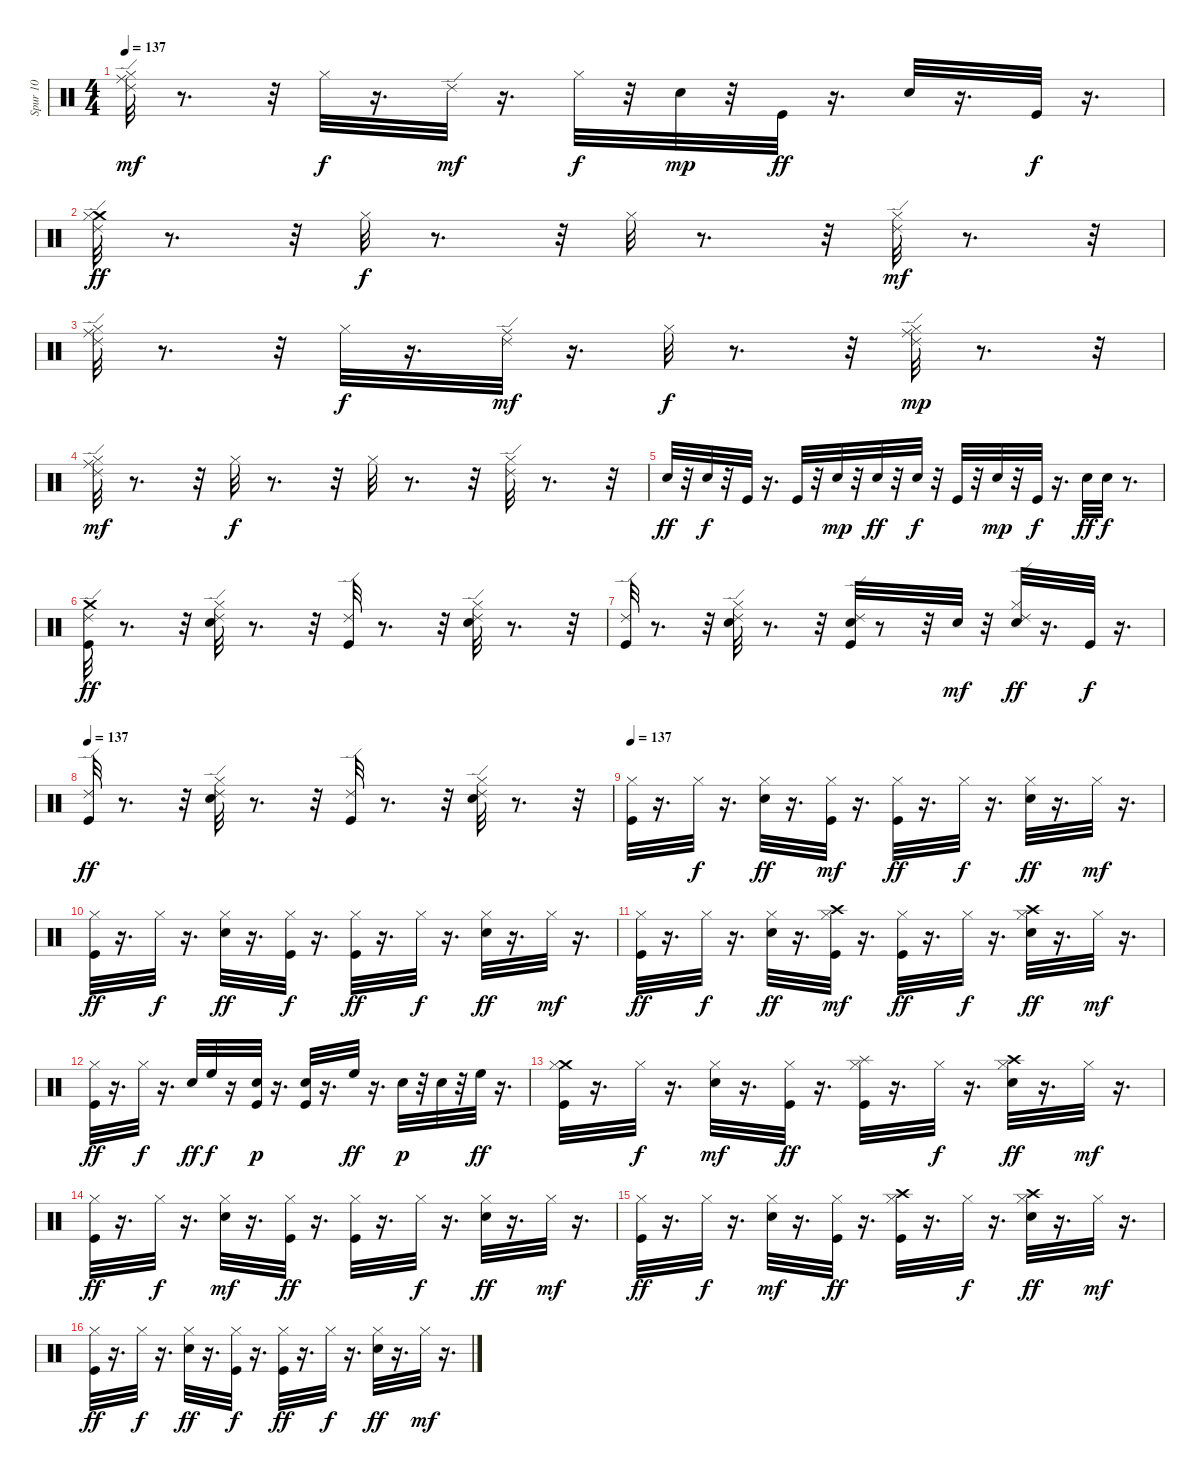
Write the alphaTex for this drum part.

\track ("Spur 10" "Spur 10") {instrument percussion}
\staff {score}
\articulation defaults
\ts (4 4)
\tempo 137
\clef neutral
\ks c
("Ride (edge) 2" "Hi-Hat (closed)" "Ride (middle)").32{dy mf} r.8{d} r.32 "Hi-Hat (closed)".32{dy f} r.16{d} "Ride (edge) 2".32{dy mf} r.16{d} "Hi-Hat (closed)".32{dy f} r.32 "Electric Snare (hit)".32{dy mp} r.32 "Kick (hit)".32{dy ff} r.16{d} "Electric Snare (hit)".32 r.16{d} "Kick (hit)".32{dy f} r.16{d} |
("Crash medium (hit)" "Ride (edge) 2" "Hi-Hat (closed)").32{dy ff} r.8{d} r.32 "Hi-Hat (closed)".32{dy f} r.8{d} r.32 "Hi-Hat (closed)".32 r.8{d} r.32 ("Ride (edge) 2" "Hi-Hat (closed)").32{dy mf} r.8{d} r.32 |
("Ride (edge) 2" "Hi-Hat (closed)" "Ride (middle)").32 r.8{d} r.32 "Hi-Hat (closed)".32{dy f} r.16{d} ("Ride (edge) 2" "Ride (middle)").32{dy mf} r.16{d} "Hi-Hat (closed)".32{dy f} r.8{d} r.32 ("Ride (edge) 2" "Hi-Hat (closed)" "Ride (middle)").32{dy mp} r.8{d} r.32 |
("Ride (edge) 2" "Hi-Hat (closed)" "Ride (middle)").32{dy mf} r.8{d} r.32 "Hi-Hat (closed)".32{dy f} r.8{d} r.32 "Hi-Hat (closed)".32 r.8{d} r.32 ("Ride (edge) 2" "Hi-Hat (closed)").32 r.8{d} r.32 |
"Electric Snare (hit)".32{dy ff} r.32 "Electric Snare (hit)".32{dy f} r.32 "Kick (hit)".32 r.16{d} "Kick (hit)".32 r.32 "Electric Snare (hit)".32{dy mp} r.32 "Electric Snare (hit)".32{dy ff} r.32 "Electric Snare (hit)".32{dy f} r.32 "Kick (hit)".32 r.32 "Electric Snare (hit)".32{dy mp} r.32 "Kick (hit)".32{dy f} r.16{d} "Electric Snare (hit)".32{dy ff} "Electric Snare (hit)".32{dy f} r.8{d} |
("Crash medium (hit)" "Ride (edge) 2" "Kick (hit)").32{dy ff} r.8{d} r.32 ("Ride (edge) 2" "Electric Snare (hit)" "Hi-Hat (closed)").32 r.8{d} r.32 ("Ride (edge) 2" "Kick (hit)").32 r.8{d} r.32 ("Ride (edge) 2" "Electric Snare (hit)" "Hi-Hat (closed)").32 r.8{d} r.32 |
("Ride (edge) 2" "Kick (hit)").32 r.8{d} r.32 ("Ride (edge) 2" "Electric Snare (hit)" "Hi-Hat (closed)").32 r.8{d} r.32 ("Ride (edge) 2" "Kick (hit)" "Electric Snare (hit)").32 r.8 r.32 "Electric Snare (hit)".32{dy mf} r.32 ("Ride (edge) 2" "Electric Snare (hit)" "Hi-Hat (closed)").32{dy ff} r.16{d} "Kick (hit)".32{dy f} r.16{d} |
\tempo 137
("Ride (edge) 2" "Kick (hit)").32{dy ff} r.8{d} r.32 ("Ride (edge) 2" "Electric Snare (hit)" "Hi-Hat (closed)").32 r.8{d} r.32 ("Ride (edge) 2" "Kick (hit)").32 r.8{d} r.32 ("Ride (edge) 2" "Electric Snare (hit)" "Hi-Hat (closed)").32 r.8{d} r.32 |
\tempo 137
("Kick (hit)" "Hi-Hat (closed)").32 r.16{d} "Hi-Hat (closed)".32{dy f} r.16{d} ("Electric Snare (hit)" "Hi-Hat (closed)").32{dy ff} r.16{d} ("Kick (hit)" "Hi-Hat (closed)").32{dy mf} r.16{d} ("Kick (hit)" "Hi-Hat (closed)").32{dy ff} r.16{d} "Hi-Hat (closed)".32{dy f} r.16{d} ("Electric Snare (hit)" "Hi-Hat (closed)").32{dy ff} r.16{d} "Hi-Hat (closed)".32{dy mf} r.16{d} |
("Kick (hit)" "Hi-Hat (closed)").32{dy ff} r.16{d} "Hi-Hat (closed)".32{dy f} r.16{d} ("Electric Snare (hit)" "Hi-Hat (closed)").32{dy ff} r.16{d} ("Kick (hit)" "Hi-Hat (closed)").32{dy f} r.16{d} ("Kick (hit)" "Hi-Hat (closed)").32{dy ff} r.16{d} "Hi-Hat (closed)".32{dy f} r.16{d} ("Electric Snare (hit)" "Hi-Hat (closed)").32{dy ff} r.16{d} "Hi-Hat (closed)".32{dy mf} r.16{d} |
("Kick (hit)" "Hi-Hat (closed)").32{dy ff} r.16{d} "Hi-Hat (closed)".32{dy f} r.16{d} ("Electric Snare (hit)" "Hi-Hat (closed)").32{dy ff} r.16{d} ("Crash high (hit)" "Kick (hit)" "Hi-Hat (closed)").32{dy mf} r.16{d} ("Kick (hit)" "Hi-Hat (closed)").32{dy ff} r.16{d} "Hi-Hat (closed)".32{dy f} r.16{d} ("Crash high (hit)" "Electric Snare (hit)" "Hi-Hat (closed)").32{dy ff} r.16{d} "Hi-Hat (closed)".32{dy mf} r.16{d} |
("Kick (hit)" "Hi-Hat (closed)").32{dy ff} r.16{d} "Hi-Hat (closed)".32{dy f} r.16{d} "Electric Snare (hit)".32{dy ff} "High Floor Tom (hit)".32{dy f} r.16 ("Kick (hit)" "Electric Snare (hit)").32{dy p} r.16{d} ("Kick (hit)" "Electric Snare (hit)").32 r.16{d} "High Floor Tom (hit)".32{dy ff} r.16{d} "Electric Snare (hit)".32{dy p} r.32 "Electric Snare (hit)".32 r.32 "High Floor Tom (hit)".32{dy ff} r.16{d} |
("Crash medium (hit)" "Kick (hit)" "Hi-Hat (closed)").32 r.16{d} "Hi-Hat (closed)".32{dy f} r.16{d} ("Electric Snare (hit)" "Hi-Hat (closed)").32{dy mf} r.16{d} ("Kick (hit)" "Hi-Hat (closed)").32{dy ff} r.16{d} ("Kick (hit)" "Hi-Hat (closed)" "Splash (hit)").32 r.16{d} "Hi-Hat (closed)".32{dy f} r.16{d} ("Crash high (hit)" "Electric Snare (hit)" "Hi-Hat (closed)").32{dy ff} r.16{d} "Hi-Hat (closed)".32{dy mf} r.16{d} |
("Kick (hit)" "Hi-Hat (closed)").32{dy ff} r.16{d} "Hi-Hat (closed)".32{dy f} r.16{d} ("Electric Snare (hit)" "Hi-Hat (closed)").32{dy mf} r.16{d} ("Kick (hit)" "Hi-Hat (closed)").32{dy ff} r.16{d} ("Kick (hit)" "Hi-Hat (closed)").32 r.16{d} "Hi-Hat (closed)".32{dy f} r.16{d} ("Electric Snare (hit)" "Hi-Hat (closed)").32{dy ff} r.16{d} "Hi-Hat (closed)".32{dy mf} r.16{d} |
("Kick (hit)" "Hi-Hat (closed)").32{dy ff} r.16{d} "Hi-Hat (closed)".32{dy f} r.16{d} ("Electric Snare (hit)" "Hi-Hat (closed)").32{dy mf} r.16{d} ("Kick (hit)" "Hi-Hat (closed)").32{dy ff} r.16{d} ("Crash high (hit)" "Kick (hit)" "Hi-Hat (closed)").32 r.16{d} "Hi-Hat (closed)".32{dy f} r.16{d} ("Crash high (hit)" "Electric Snare (hit)" "Hi-Hat (closed)").32{dy ff} r.16{d} "Hi-Hat (closed)".32{dy mf} r.16{d} |
("Kick (hit)" "Hi-Hat (closed)").32{dy ff} r.16{d} "Hi-Hat (closed)".32{dy f} r.16{d} ("Electric Snare (hit)" "Hi-Hat (closed)").32{dy ff} r.16{d} ("Kick (hit)" "Hi-Hat (closed)").32{dy f} r.16{d} ("Kick (hit)" "Hi-Hat (closed)").32{dy ff} r.16{d} "Hi-Hat (closed)".32{dy f} r.16{d} ("Electric Snare (hit)" "Hi-Hat (closed)").32{dy ff} r.16{d} "Hi-Hat (closed)".32{dy mf} r.16{d}
